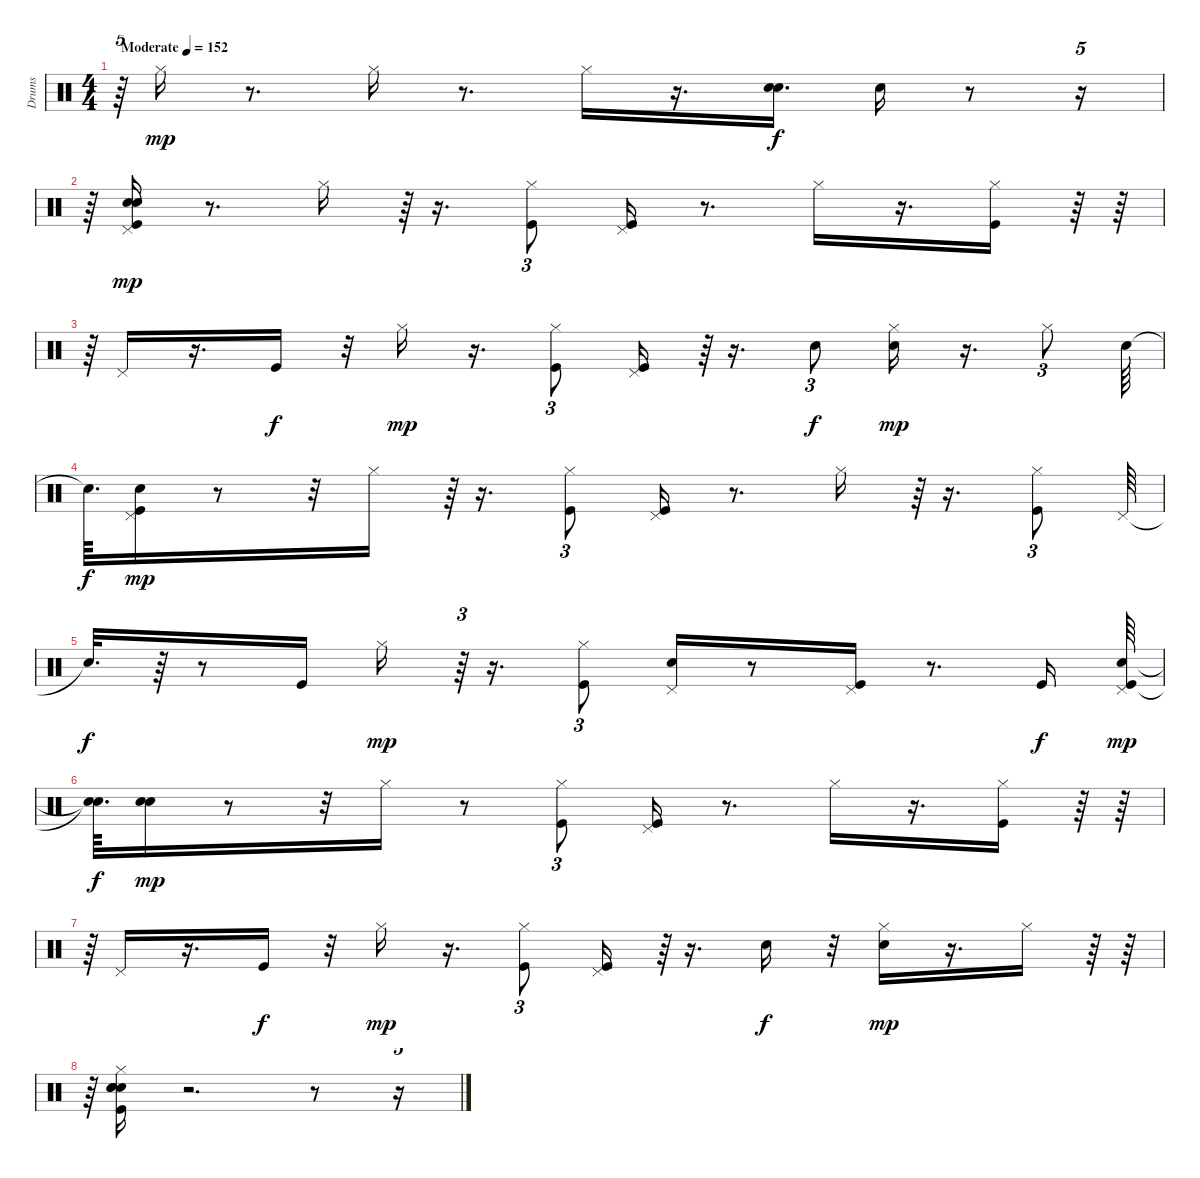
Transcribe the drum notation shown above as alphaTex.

\track ("Drums" "Drums") {instrument percussion}
\staff {score}
\articulation defaults
\ts (4 4)
\tempo (152 "Moderate")
\clef neutral
\ks c
r.64{tu (5 4) dy mp} "Hi-Hat (closed)".16 r.8{d} "Hi-Hat (closed)".16 r.8{d} "Hi-Hat (closed)".16 r.16{d} ("Snare (hit) 2" "Electric Snare (hit)").16{d dy f} "Snare (hit) 2".16 r.8 r.16{tu (5 4)} |
r.64{tu (5 4)} ("Kick (hit)" "Pedal Hi-Hat (hit)" "Snare (hit) 2" "Snare (hit) 2").16{dy mp} r.8{d} "Hi-Hat (closed)".16 r.64{tu (3 2)} r.16{d} ("Kick (hit)" "Hi-Hat (closed)").8{tu (3 2)} ("Kick (hit)" "Pedal Hi-Hat (hit)").16 r.8{d} "Hi-Hat (closed)".16 r.16{d} ("Kick (hit)" "Hi-Hat (closed)").16 r.64 r.64 |
r.64{tu (5 4)} "Pedal Hi-Hat (hit)".16 r.16{d} "Kick (hit)".16{dy f} r.32 "Hi-Hat (closed)".16{dy mp} r.16{d} ("Kick (hit)" "Hi-Hat (closed)").8{tu (3 2)} ("Kick (hit)" "Pedal Hi-Hat (hit)").16 r.64{tu (3 2)} r.16{d} "Snare (hit) 2".8{tu (3 2) dy f} ("Hi-Hat (closed)" "Snare (hit) 2").16{dy mp} r.16{d} "Hi-Hat (closed)".8{tu (3 2)} "Snare (hit) 2".64 |
"Snare (hit)"{t}.64{d dy f} ("Kick (hit)" "Snare (hit) 2" "Pedal Hi-Hat (hit)").16{dy mp} r.8 r.32 "Hi-Hat (closed)".16 r.64{tu (3 2)} r.16{d} ("Kick (hit)" "Hi-Hat (closed)").8{tu (3 2)} ("Kick (hit)" "Pedal Hi-Hat (hit)").16 r.8{d} "Hi-Hat (closed)".16 r.64{tu (3 2)} r.16{d} ("Kick (hit)" "Hi-Hat (closed)").8{tu (3 2)} "Pedal Hi-Hat (hit)".64 |
"Snare (hit)"{t}.32{d dy f} r.64 r.8 "Kick (hit)".16 "Hi-Hat (closed)".16{dy mp} r.64{tu (3 2)} r.16{d} ("Kick (hit)" "Hi-Hat (closed)").8{tu (3 2)} ("Pedal Hi-Hat (hit)" "Snare (hit) 2").16 r.8 ("Kick (hit)" "Pedal Hi-Hat (hit)").16 r.8{d} "Kick (hit)".16{dy f} ("Snare (hit) 2" "Kick (hit)" "Pedal Hi-Hat (hit)").64{dy mp} |
("Snare (hit)"{t} "Snare (hit)"{t}).64{d dy f} ("Snare (hit) 2" "Snare (hit) 2").16{dy mp} r.8 r.32 "Hi-Hat (closed)".16 r.8 ("Kick (hit)" "Hi-Hat (closed)").8{tu (3 2)} ("Kick (hit)" "Pedal Hi-Hat (hit)").16 r.8{d} "Hi-Hat (closed)".16 r.16{d} ("Kick (hit)" "Hi-Hat (closed)").16 r.64 r.64 |
r.64{tu (5 4)} "Pedal Hi-Hat (hit)".16 r.16{d} "Kick (hit)".16{dy f} r.32 "Hi-Hat (closed)".16{dy mp} r.16{d} ("Kick (hit)" "Hi-Hat (closed)").8{tu (3 2)} ("Kick (hit)" "Pedal Hi-Hat (hit)").16 r.64{tu (3 2)} r.16{d} "Snare (hit) 2".16{dy f} r.32 ("Snare (hit) 2" "Hi-Hat (closed)").16{dy mp} r.16{d} "Hi-Hat (closed)".16 r.64 r.64 |
r.64{tu (5 4)} ("Snare (hit) 2" "Kick (hit)" "Hi-Hat (closed)" "Snare (hit) 2" "Snare (hit) 2").16 r.2{d} r.8 r.16{tu (5 4)}
